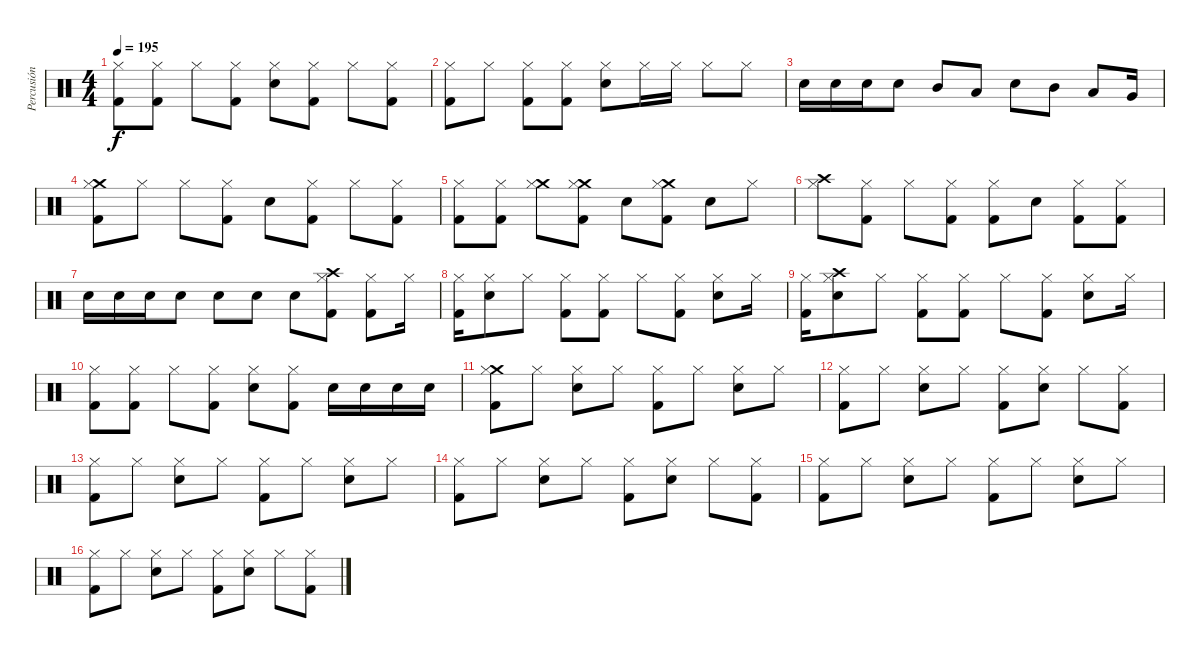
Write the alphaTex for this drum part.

\track ("Percusión" "Percusión") {instrument percussion}
\staff {score}
\articulation defaults
\ts (4 4)
\tempo 195
\clef neutral
\ks c
("Hi-Hat (closed)" "Kick (hit) 2").8{dy f} ("Hi-Hat (closed)" "Kick (hit) 2").8 "Hi-Hat (closed)".8 ("Hi-Hat (closed)" "Kick (hit) 2").8 ("Hi-Hat (closed)" "Snare (hit) 2").8 ("Hi-Hat (closed)" "Kick (hit) 2").8 "Hi-Hat (closed)".8 ("Hi-Hat (closed)" "Kick (hit) 2").8 |
("Hi-Hat (closed)" "Kick (hit) 2").8 "Hi-Hat (closed)".8 ("Hi-Hat (closed)" "Kick (hit) 2").8 ("Hi-Hat (closed)" "Kick (hit) 2").8 ("Hi-Hat (closed)" "Snare (hit) 2").8 "Hi-Hat (closed)".16 "Hi-Hat (closed)".16 "Hi-Hat (closed)".8 "Hi-Hat (closed)".8 |
"Snare (hit) 2".16 "Snare (hit) 2".16 "Snare (hit) 2".16 "Snare (hit) 2".8 "Mid Tom (hit)".8 "Low Tom (hit)".8 "Snare (hit) 2".8 "Mid Tom (hit)".8 "Low Tom (hit)".8 "Very Low Tom (hit)".16 |
("Crash medium (hit)" "Hi-Hat (closed)" "Kick (hit) 2").8 "Hi-Hat (closed)".8 "Hi-Hat (closed)".8 ("Hi-Hat (closed)" "Kick (hit) 2").8 "Snare (hit) 2".8 ("Hi-Hat (closed)" "Kick (hit) 2").8 "Hi-Hat (closed)".8 ("Hi-Hat (closed)" "Kick (hit) 2").8 |
("Hi-Hat (closed)" "Kick (hit) 2").8 ("Hi-Hat (closed)" "Kick (hit) 2").8 ("Crash medium (hit)" "Hi-Hat (closed)").8 ("Crash medium (hit)" "Hi-Hat (closed)" "Kick (hit) 2").8 "Snare (hit) 2".8 ("Crash medium (hit)" "Hi-Hat (closed)" "Kick (hit) 2").8 "Snare (hit) 2".8 "Hi-Hat (closed)".8 |
("Crash high (hit)" "Hi-Hat (closed)").8 ("Hi-Hat (closed)" "Kick (hit) 2").8 "Hi-Hat (closed)".8 ("Hi-Hat (closed)" "Kick (hit) 2").8 ("Hi-Hat (closed)" "Kick (hit) 2").8 "Snare (hit) 2".8 ("Hi-Hat (closed)" "Kick (hit) 2").8 ("Hi-Hat (closed)" "Kick (hit) 2").8 |
"Snare (hit) 2".16 "Snare (hit) 2".16 "Snare (hit) 2".16 "Snare (hit) 2".8 "Snare (hit) 2".8 "Snare (hit) 2".8 "Snare (hit) 2".8 ("Crash high (hit)" "Hi-Hat (closed)" "Kick (hit) 2").8 ("Hi-Hat (closed)" "Kick (hit) 2").8 "Hi-Hat (closed)".16 |
("Hi-Hat (closed)" "Kick (hit) 2").16 ("Hi-Hat (closed)" "Snare (hit) 2").8 "Hi-Hat (closed)".8 ("Hi-Hat (closed)" "Kick (hit) 2").8 ("Hi-Hat (closed)" "Kick (hit) 2").8 "Hi-Hat (closed)".8 ("Hi-Hat (closed)" "Kick (hit) 2").8 ("Hi-Hat (closed)" "Snare (hit) 2").8 "Hi-Hat (closed)".16 |
("Hi-Hat (closed)" "Kick (hit) 2").16 ("Hi-Hat (closed)" "Snare (hit) 2" "Crash high (hit)").8 "Hi-Hat (closed)".8 ("Hi-Hat (closed)" "Kick (hit) 2").8 ("Hi-Hat (closed)" "Kick (hit) 2").8 "Hi-Hat (closed)".8 ("Hi-Hat (closed)" "Kick (hit) 2").8 ("Hi-Hat (closed)" "Snare (hit) 2").8 "Hi-Hat (closed)".16 |
("Hi-Hat (closed)" "Kick (hit) 2").8 ("Hi-Hat (closed)" "Kick (hit) 2").8 "Hi-Hat (closed)".8 ("Hi-Hat (closed)" "Kick (hit) 2").8 ("Hi-Hat (closed)" "Snare (hit) 2").8 ("Hi-Hat (closed)" "Kick (hit) 2").8 "Snare (hit) 2".16 "Snare (hit) 2".16 "Snare (hit) 2".16 "Snare (hit) 2".16 |
("Crash medium (hit)" "Hi-Hat (closed)" "Kick (hit) 2").8 "Hi-Hat (closed)".8 ("Hi-Hat (closed)" "Snare (hit) 2").8 "Hi-Hat (closed)".8 ("Hi-Hat (closed)" "Kick (hit) 2").8 "Hi-Hat (closed)".8 ("Hi-Hat (closed)" "Snare (hit) 2").8 "Hi-Hat (closed)".8 |
("Hi-Hat (closed)" "Kick (hit) 2").8 "Hi-Hat (closed)".8 ("Hi-Hat (closed)" "Snare (hit) 2").8 "Hi-Hat (closed)".8 ("Hi-Hat (closed)" "Kick (hit) 2").8 ("Hi-Hat (closed)" "Snare (hit) 2").8 "Hi-Hat (closed)".8 ("Hi-Hat (closed)" "Kick (hit) 2").8 |
("Hi-Hat (closed)" "Kick (hit) 2").8 "Hi-Hat (closed)".8 ("Hi-Hat (closed)" "Snare (hit) 2").8 "Hi-Hat (closed)".8 ("Hi-Hat (closed)" "Kick (hit) 2").8 "Hi-Hat (closed)".8 ("Hi-Hat (closed)" "Snare (hit) 2").8 "Hi-Hat (closed)".8 |
("Hi-Hat (closed)" "Kick (hit) 2").8 "Hi-Hat (closed)".8 ("Hi-Hat (closed)" "Snare (hit) 2").8 "Hi-Hat (closed)".8 ("Hi-Hat (closed)" "Kick (hit) 2").8 ("Hi-Hat (closed)" "Snare (hit) 2").8 "Hi-Hat (closed)".8 ("Hi-Hat (closed)" "Kick (hit) 2").8 |
("Hi-Hat (closed)" "Kick (hit) 2").8 "Hi-Hat (closed)".8 ("Hi-Hat (closed)" "Snare (hit) 2").8 "Hi-Hat (closed)".8 ("Hi-Hat (closed)" "Kick (hit) 2").8 "Hi-Hat (closed)".8 ("Hi-Hat (closed)" "Snare (hit) 2").8 "Hi-Hat (closed)".8 |
("Hi-Hat (closed)" "Kick (hit) 2").8 "Hi-Hat (closed)".8 ("Hi-Hat (closed)" "Snare (hit) 2").8 "Hi-Hat (closed)".8 ("Hi-Hat (closed)" "Kick (hit) 2").8 ("Hi-Hat (closed)" "Snare (hit) 2").8 "Hi-Hat (closed)".8 ("Hi-Hat (closed)" "Kick (hit) 2").8
